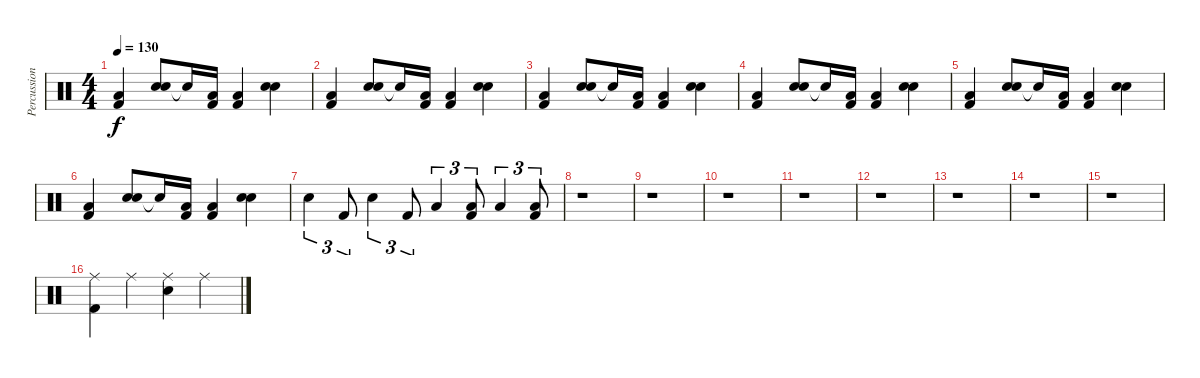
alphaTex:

\track ("Percussion" "Percussion") {instrument percussion}
\staff {score}
\articulation defaults
\ts (4 4)
\tempo 130
\clef neutral
\ks c
("Low Floor Tom (hit)" "Kick (hit) 2").4{dy f} ("Hand Clap (hit)" "Snare (hit) 2").8 "Snare (hit)"{t}.16 ("Low Floor Tom (hit)" "Kick (hit) 2").16 ("Low Floor Tom (hit)" "Kick (hit) 2").4 ("Hand Clap (hit)" "Snare (hit) 2").4 |
("Low Floor Tom (hit)" "Kick (hit) 2").4 ("Hand Clap (hit)" "Snare (hit) 2").8 "Snare (hit)"{t}.16 ("Low Floor Tom (hit)" "Kick (hit) 2").16 ("Low Floor Tom (hit)" "Kick (hit) 2").4 ("Hand Clap (hit)" "Snare (hit) 2").4 |
("Low Floor Tom (hit)" "Kick (hit) 2").4 ("Hand Clap (hit)" "Snare (hit) 2").8 "Snare (hit)"{t}.16 ("Low Floor Tom (hit)" "Kick (hit) 2").16 ("Low Floor Tom (hit)" "Kick (hit) 2").4 ("Hand Clap (hit)" "Snare (hit) 2").4 |
("Low Floor Tom (hit)" "Kick (hit) 2").4 ("Hand Clap (hit)" "Snare (hit) 2").8 "Snare (hit)"{t}.16 ("Low Floor Tom (hit)" "Kick (hit) 2").16 ("Low Floor Tom (hit)" "Kick (hit) 2").4 ("Hand Clap (hit)" "Snare (hit) 2").4 |
("Low Floor Tom (hit)" "Kick (hit) 2").4 ("Hand Clap (hit)" "Snare (hit) 2").8 "Snare (hit)"{t}.16 ("Low Floor Tom (hit)" "Kick (hit) 2").16 ("Low Floor Tom (hit)" "Kick (hit) 2").4 ("Hand Clap (hit)" "Snare (hit) 2").4 |
("Low Floor Tom (hit)" "Kick (hit) 2").4 ("Hand Clap (hit)" "Snare (hit) 2").8 "Snare (hit)"{t}.16 ("Low Floor Tom (hit)" "Kick (hit) 2").16 ("Low Floor Tom (hit)" "Kick (hit) 2").4 ("Hand Clap (hit)" "Snare (hit) 2").4 |
"Snare (hit) 2".4{tu (3 2)} "Kick (hit) 2".8{tu (3 2)} "Snare (hit) 2".4{tu (3 2)} "Kick (hit) 2".8{tu (3 2)} "Low Tom (hit)".4{tu (3 2)} ("Low Tom (hit)" "Kick (hit) 2").8{tu (3 2)} "Low Tom (hit)".4{tu (3 2)} ("Low Tom (hit)" "Kick (hit) 2").8{tu (3 2)} |
r.1 |
r.1 |
r.1 |
r.1 |
r.1 |
r.1 |
r.1 |
r.1 |
("Ride (middle)" "Kick (hit) 2").4 "Ride (middle)".4 ("Ride (middle)" "Snare (hit) 2").4 "Ride (middle)".4
